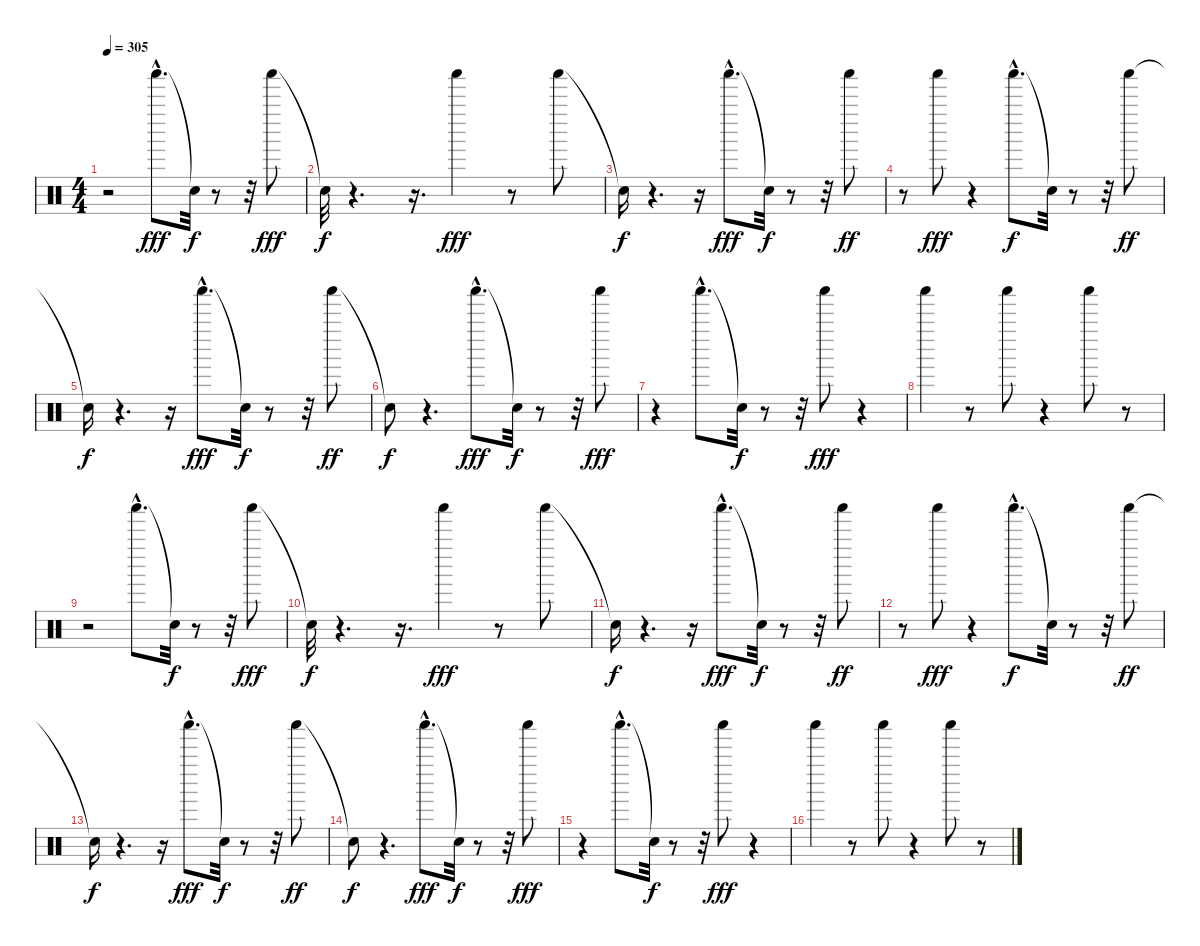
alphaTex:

\track "" {instrument percussion}
\staff {score}
\articulation defaults
\ts (4 4)
\tempo 305
\clef neutral
\ks c
r.2{dy fff} "Shaker (hit)"{hac}.8{d} "Snare (hit)"{t}.32{dy f} r.8 r.32 "Shaker (hit)".8{dy fff} |
"Snare (hit)"{t}.32{dy f} r.4{d} r.16{d} "Shaker (hit)".4{dy fff} r.8 "Shaker (hit)".8 |
"Snare (hit)"{t}.16{dy f} r.4{d} r.16 "Shaker (hit)"{hac}.8{d dy fff} "Snare (hit)"{t}.32{dy f} r.8 r.32 "Shaker (hit)".8{dy ff} |
r.8 "Shaker (hit)".8{dy fff} r.4 "Shaker (hit)"{hac}.8{d dy f} "Snare (hit)"{t}.32 r.8 r.32 "Shaker (hit)".8{dy ff} |
"Snare (hit)"{t}.16{dy f} r.4{d} r.16 "Shaker (hit)"{hac}.8{d dy fff} "Snare (hit)"{t}.32{dy f} r.8 r.32 "Shaker (hit)".8{dy ff} |
"Snare (hit)"{t}.8{dy f} r.4{d} "Shaker (hit)"{hac}.8{d dy fff} "Snare (hit)"{t}.32{dy f} r.8 r.32 "Shaker (hit)".8{dy fff} |
r.4 "Shaker (hit)"{hac}.8{d} "Snare (hit)"{t}.32{dy f} r.8 r.32 "Shaker (hit)".8{dy fff} r.4 |
"Shaker (hit)".4 r.8 "Shaker (hit)".8 r.4 "Shaker (hit)".8 r.8 |
r.2 "Shaker (hit)"{hac}.8{d} "Snare (hit)"{t}.32{dy f} r.8 r.32 "Shaker (hit)".8{dy fff} |
"Snare (hit)"{t}.32{dy f} r.4{d} r.16{d} "Shaker (hit)".4{dy fff} r.8 "Shaker (hit)".8 |
"Snare (hit)"{t}.16{dy f} r.4{d} r.16 "Shaker (hit)"{hac}.8{d dy fff} "Snare (hit)"{t}.32{dy f} r.8 r.32 "Shaker (hit)".8{dy ff} |
r.8 "Shaker (hit)".8{dy fff} r.4 "Shaker (hit)"{hac}.8{d dy f} "Snare (hit)"{t}.32 r.8 r.32 "Shaker (hit)".8{dy ff} |
"Snare (hit)"{t}.16{dy f} r.4{d} r.16 "Shaker (hit)"{hac}.8{d dy fff} "Snare (hit)"{t}.32{dy f} r.8 r.32 "Shaker (hit)".8{dy ff} |
"Snare (hit)"{t}.8{dy f} r.4{d} "Shaker (hit)"{hac}.8{d dy fff} "Snare (hit)"{t}.32{dy f} r.8 r.32 "Shaker (hit)".8{dy fff} |
r.4 "Shaker (hit)"{hac}.8{d} "Snare (hit)"{t}.32{dy f} r.8 r.32 "Shaker (hit)".8{dy fff} r.4 |
"Shaker (hit)".4 r.8 "Shaker (hit)".8 r.4 "Shaker (hit)".8 r.8
